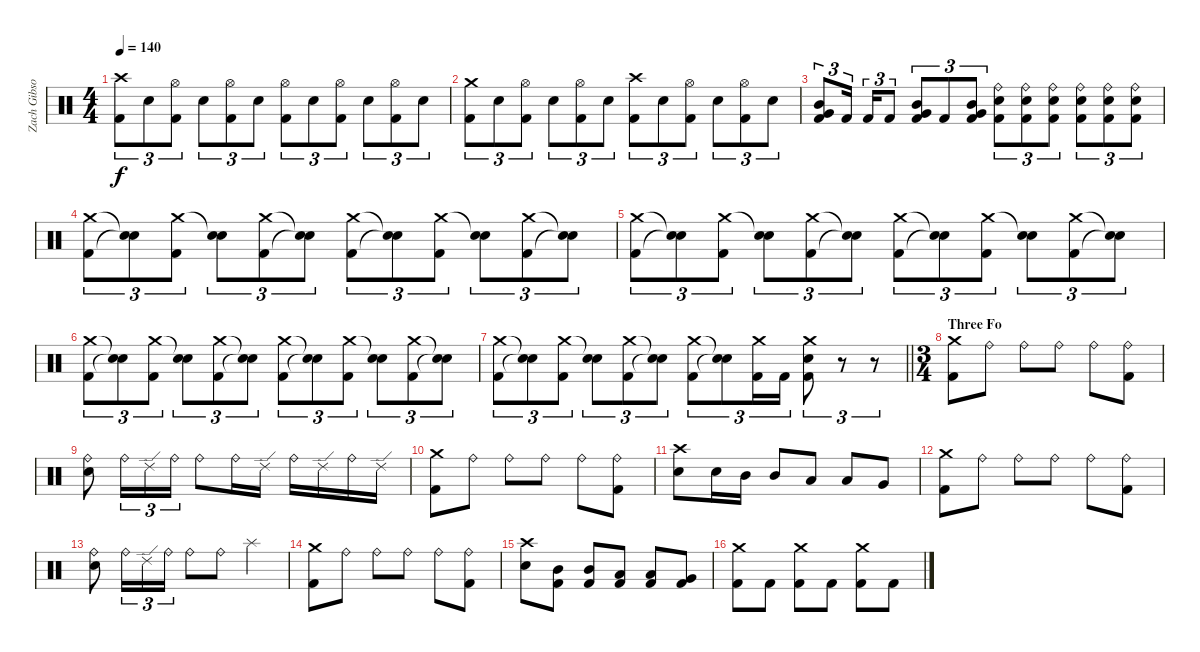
\track ("Zach Gibson" "Zach Gibso") {instrument percussion}
\staff {score}
\articulation defaults
\ts (4 4)
\tempo 140
\clef neutral
\ks c
("Crash high (hit)" "Kick (hit) 2").8{tu (3 2) dy f} "Snare (hit) 2".8{tu (3 2)} ("Hi-Hat (open)" "Kick (hit) 2").8{tu (3 2)} "Snare (hit) 2".8{tu (3 2)} ("Hi-Hat (open)" "Kick (hit) 2").8{tu (3 2)} "Snare (hit) 2".8{tu (3 2)} ("Hi-Hat (open)" "Kick (hit) 2").8{tu (3 2)} "Snare (hit) 2".8{tu (3 2)} ("Hi-Hat (open)" "Kick (hit) 2").8{tu (3 2)} "Snare (hit) 2".8{tu (3 2)} ("Hi-Hat (open)" "Kick (hit) 2").8{tu (3 2)} "Snare (hit) 2".8{tu (3 2)} |
("Crash medium (hit)" "Kick (hit) 2").8{tu (3 2)} "Snare (hit) 2".8{tu (3 2)} ("Hi-Hat (open)" "Kick (hit) 2").8{tu (3 2)} "Snare (hit) 2".8{tu (3 2)} ("Hi-Hat (open)" "Kick (hit) 2").8{tu (3 2)} "Snare (hit) 2".8{tu (3 2)} ("Crash high (hit)" "Kick (hit) 2").8{tu (3 2)} "Snare (hit) 2".8{tu (3 2)} ("Hi-Hat (open)" "Kick (hit) 2").8{tu (3 2)} "Snare (hit) 2".8{tu (3 2)} ("Hi-Hat (open)" "Kick (hit) 2").8{tu (3 2)} "Snare (hit) 2".8{tu (3 2)} |
("Mid Tom (hit)" "Very Low Tom (hit)" "Kick (hit) 2").8{tu (3 2)} "Kick (hit) 2".16{tu (3 2) beam splitsecondary} "Kick (hit) 2".16{tu (3 2)} "Kick (hit) 2".8{tu (3 2)} ("Very Low Tom (hit)" "Mid Tom (hit)" "Kick (hit) 2").8{tu (3 2)} "Kick (hit) 2".8{tu (3 2)} ("Very Low Tom (hit)" "Mid Tom (hit)" "Kick (hit) 2").8{tu (3 2)} ("Ride (bell)" "Snare (hit) 2" "Kick (hit) 2").8{tu (3 2)} ("Ride (bell)" "Snare (hit) 2" "Kick (hit) 2").8{tu (3 2)} ("Ride (bell)" "Snare (hit) 2" "Kick (hit) 2").8{tu (3 2)} ("Ride (bell)" "Snare (hit) 2" "Kick (hit) 2").8{tu (3 2)} ("Ride (bell)" "Snare (hit) 2" "Kick (hit) 2").8{tu (3 2)} ("Ride (bell)" "Snare (hit) 2" "Kick (hit) 2").8{tu (3 2)} |
("Crash medium (hit)" "Kick (hit) 2").8{tu (3 2)} ("Snare (hit)"{t} "Snare (hit)"{t}).8{tu (3 2)} ("Crash medium (hit)" "Kick (hit) 2").8{tu (3 2)} ("Snare (hit)"{t} "Snare (hit) 2").8{tu (3 2)} ("Crash medium (hit)" "Kick (hit) 2").8{tu (3 2)} ("Snare (hit)"{t} "Snare (hit)"{t}).8{tu (3 2)} ("Crash medium (hit)" "Kick (hit) 2").8{tu (3 2)} ("Snare (hit)"{t} "Snare (hit)"{t}).8{tu (3 2)} ("Crash medium (hit)" "Kick (hit) 2").8{tu (3 2)} ("Snare (hit)"{t} "Snare (hit) 2").8{tu (3 2)} ("Crash medium (hit)" "Kick (hit) 2").8{tu (3 2)} ("Snare (hit)"{t} "Snare (hit)"{t}).8{tu (3 2)} |
("Crash medium (hit)" "Kick (hit) 2").8{tu (3 2)} ("Snare (hit)"{t} "Snare (hit)"{t}).8{tu (3 2)} ("Crash medium (hit)" "Kick (hit) 2").8{tu (3 2)} ("Snare (hit)"{t} "Snare (hit) 2").8{tu (3 2)} ("Crash medium (hit)" "Kick (hit) 2").8{tu (3 2)} ("Snare (hit)"{t} "Snare (hit)"{t}).8{tu (3 2)} ("Crash medium (hit)" "Kick (hit) 2").8{tu (3 2)} ("Snare (hit)"{t} "Snare (hit)"{t}).8{tu (3 2)} ("Crash medium (hit)" "Kick (hit) 2").8{tu (3 2)} ("Snare (hit)"{t} "Snare (hit) 2").8{tu (3 2)} ("Crash medium (hit)" "Kick (hit) 2").8{tu (3 2)} ("Snare (hit)"{t} "Snare (hit)"{t}).8{tu (3 2)} |
("Crash medium (hit)" "Kick (hit) 2").8{tu (3 2)} ("Snare (hit)"{t} "Snare (hit)"{t}).8{tu (3 2)} ("Crash medium (hit)" "Kick (hit) 2").8{tu (3 2)} ("Snare (hit)"{t} "Snare (hit) 2").8{tu (3 2)} ("Crash medium (hit)" "Kick (hit) 2").8{tu (3 2)} ("Snare (hit)"{t} "Snare (hit)"{t}).8{tu (3 2)} ("Crash medium (hit)" "Kick (hit) 2").8{tu (3 2)} ("Snare (hit)"{t} "Snare (hit)"{t}).8{tu (3 2)} ("Crash medium (hit)" "Kick (hit) 2").8{tu (3 2)} ("Snare (hit)"{t} "Snare (hit) 2").8{tu (3 2)} ("Crash medium (hit)" "Kick (hit) 2").8{tu (3 2)} ("Snare (hit)"{t} "Snare (hit)"{t}).8{tu (3 2)} |
\barLineRight lightlight
("Crash medium (hit)" "Kick (hit) 2").8{tu (3 2)} ("Snare (hit)"{t} "Snare (hit)"{t}).8{tu (3 2)} ("Crash medium (hit)" "Kick (hit) 2").8{tu (3 2)} ("Snare (hit)"{t} "Snare (hit) 2").8{tu (3 2)} ("Crash medium (hit)" "Kick (hit) 2").8{tu (3 2)} ("Snare (hit)"{t} "Snare (hit)"{t}).8{tu (3 2)} ("Crash medium (hit)" "Kick (hit) 2").8{tu (3 2)} ("Snare (hit)"{t} "Snare (hit)"{t}).8{tu (3 2)} ("Crash medium (hit)" "Kick (hit) 2").16{tu (3 2)} "Kick (hit) 2".16{tu (3 2)} ("Crash medium (hit)" "Snare (hit) 2" "Kick (hit) 2").8{tu (3 2)} r.8{tu (3 2)} r.8{tu (3 2)} |
\ts (3 4)
\section ("" "Three Fo")
("Crash medium (hit)" "Kick (hit) 2").8 "Ride (bell)".8 "Ride (bell)".8 "Ride (bell)".8 "Ride (bell)".8 ("Ride (bell)" "Kick (hit) 2").8 |
("Ride (bell)" "Snare (hit) 2").8 "Ride (bell)".16{tu (3 2)} "Ride (edge) 2".16{tu (3 2)} "Ride (bell)".16{tu (3 2)} "Ride (bell)".8 "Ride (bell)".16 "Ride (edge) 2".16 "Ride (bell)".16 "Ride (edge) 2".16 "Ride (bell)".16 "Ride (edge) 2".16 |
("Crash medium (hit)" "Kick (hit) 2").8 "Ride (bell)".8 "Ride (bell)".8 "Ride (bell)".8 "Ride (bell)".8 ("Ride (bell)" "Kick (hit) 2").8 |
("Crash high (hit)" "Snare (hit) 2").8 "Snare (hit) 2".16 "Mid Tom (hit)".16 "Mid Tom (hit)".8 "Low Tom (hit)".8 "Low Tom (hit)".8 "Very Low Tom (hit)".8 |
("Crash medium (hit)" "Kick (hit) 2").8 "Ride (bell)".8 "Ride (bell)".8 "Ride (bell)".8 "Ride (bell)".8 ("Ride (bell)" "Kick (hit) 2").8 |
("Ride (bell)" "Snare (hit) 2").8 "Ride (bell)".16{tu (3 2)} "Ride (edge) 2".16{tu (3 2)} "Ride (bell)".16{tu (3 2)} "Ride (bell)".8 "Ride (bell)".8 "Splash (hit)".4 |
("Crash medium (hit)" "Kick (hit) 2").8 "Ride (bell)".8 "Ride (bell)".8 "Ride (bell)".8 "Ride (bell)".8 ("Ride (bell)" "Kick (hit) 2").8 |
("Crash high (hit)" "Snare (hit) 2").8 ("Mid Tom (hit)" "Kick (hit) 2").8 ("Mid Tom (hit)" "Kick (hit) 2").8 ("Low Tom (hit)" "Kick (hit) 2").8 ("Low Tom (hit)" "Kick (hit) 2").8 ("Very Low Tom (hit)" "Kick (hit) 2").8 |
("Crash medium (hit)" "Kick (hit) 2").8 "Kick (hit) 2".8 ("Crash medium (hit)" "Kick (hit) 2").8 "Kick (hit) 2".8 ("Crash medium (hit)" "Kick (hit) 2").8 "Kick (hit) 2".8
